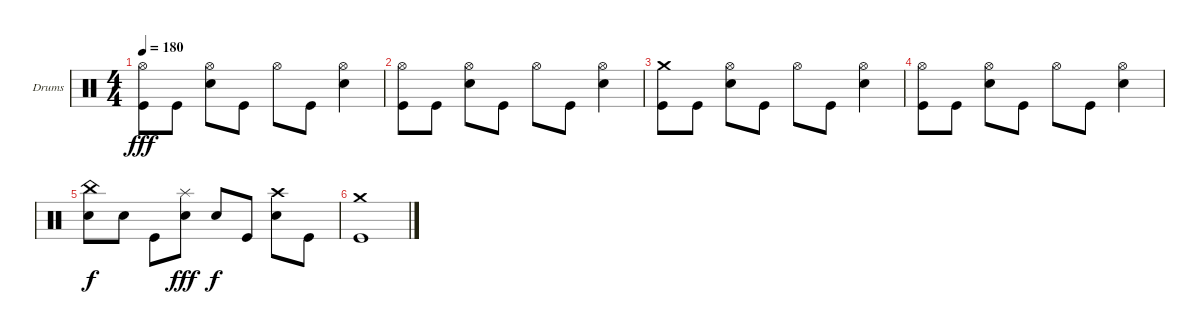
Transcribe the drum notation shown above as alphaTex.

\defaultSystemsLayout 4
\bracketExtendMode groupsimilarinstruments
\firstSystemTrackNameOrientation horizontal
\otherSystemsTrackNameOrientation horizontal
\track ("Барабаны" "Drums") {instrument percussion}
\staff {score}
\articulation defaults
\ts (4 4)
\tempo 180
\clef neutral
\ks c
("Hi-Hat (open)" "Kick (hit)").8{dy fff} "Kick (hit)".8 ("Hi-Hat (open)" "Snare (hit) 2").8 "Kick (hit)".8 "Hi-Hat (open)".8 "Kick (hit)".8 ("Hi-Hat (open)" "Snare (hit) 2").4 |
("Hi-Hat (open)" "Kick (hit)").8 "Kick (hit)".8 ("Hi-Hat (open)" "Snare (hit) 2").8 "Kick (hit)".8 "Hi-Hat (open)".8 "Kick (hit)".8 ("Hi-Hat (open)" "Snare (hit) 2").4 |
("Crash medium (hit)" "Kick (hit)").8 "Kick (hit)".8 ("Hi-Hat (open)" "Snare (hit) 2").8 "Kick (hit)".8 "Hi-Hat (open)".8 "Kick (hit)".8 ("Hi-Hat (open)" "Snare (hit) 2").4 |
("Hi-Hat (open)" "Kick (hit)").8 "Kick (hit)".8 ("Hi-Hat (open)" "Snare (hit) 2").8 "Kick (hit)".8 "Hi-Hat (open)".8 "Kick (hit)".8 ("Hi-Hat (open)" "Snare (hit) 2").4 |
("China (hit)" "Snare (hit) 2").8{dy f} "Snare (hit) 2".8 "Kick (hit)".8 ("Splash (hit)" "Snare (hit) 2").8{dy fff} "Snare (hit) 2".8{dy f} "Kick (hit)".8 ("Crash high (hit)" "Snare (hit) 2").8 "Kick (hit)".8 |
("Crash medium (hit)" "Kick (hit)").1
